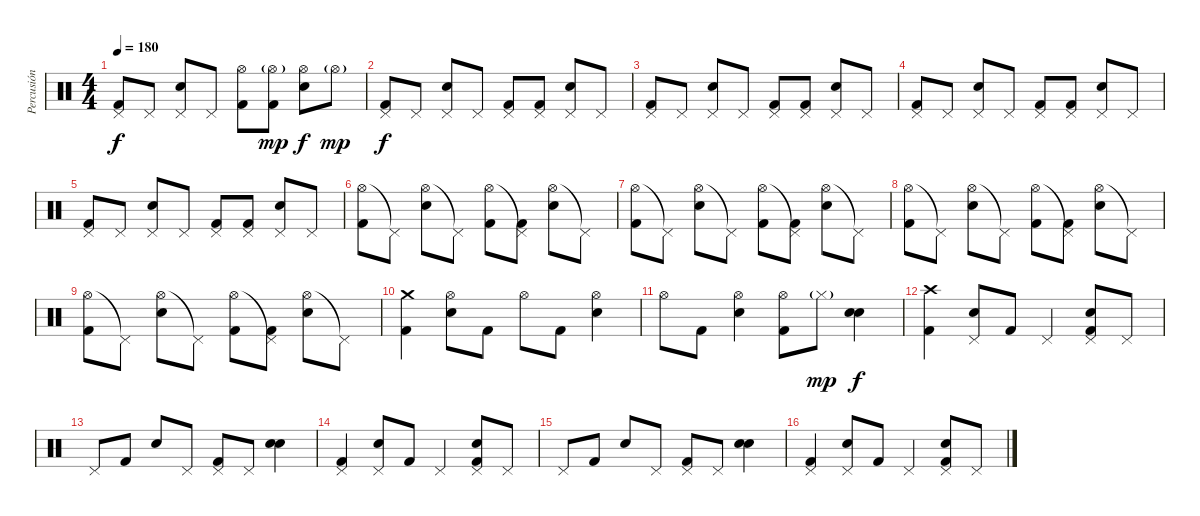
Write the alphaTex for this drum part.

\track ("Percusión" "Percusión") {instrument percussion}
\staff {score}
\articulation defaults
\ts (4 4)
\tempo 180
\clef neutral
\ks c
("Pedal Hi-Hat (hit)" "Kick (hit) 2").8{dy f} "Pedal Hi-Hat (hit)".8 ("Pedal Hi-Hat (hit)" "Electric Snare (hit)").8 "Pedal Hi-Hat (hit)".8 ("Hi-Hat (open)" "Kick (hit) 2").8 ("Hi-Hat (open)"{g} "Kick (hit) 2").8{dy mp} ("Hi-Hat (open)" "Electric Snare (hit)").8{dy f} "Hi-Hat (open)"{g}.8{dy mp} |
("Pedal Hi-Hat (hit)" "Kick (hit) 2").8{dy f} "Pedal Hi-Hat (hit)".8 ("Pedal Hi-Hat (hit)" "Electric Snare (hit)").8 "Pedal Hi-Hat (hit)".8 ("Pedal Hi-Hat (hit)" "Kick (hit) 2").8 ("Pedal Hi-Hat (hit)" "Kick (hit) 2").8 ("Pedal Hi-Hat (hit)" "Electric Snare (hit)").8 "Pedal Hi-Hat (hit)".8 |
("Pedal Hi-Hat (hit)" "Kick (hit) 2").8 "Pedal Hi-Hat (hit)".8 ("Pedal Hi-Hat (hit)" "Electric Snare (hit)").8 "Pedal Hi-Hat (hit)".8 ("Pedal Hi-Hat (hit)" "Kick (hit) 2").8 ("Pedal Hi-Hat (hit)" "Kick (hit) 2").8 ("Pedal Hi-Hat (hit)" "Electric Snare (hit)").8 "Pedal Hi-Hat (hit)".8 |
("Pedal Hi-Hat (hit)" "Kick (hit) 2").8 "Pedal Hi-Hat (hit)".8 ("Pedal Hi-Hat (hit)" "Electric Snare (hit)").8 "Pedal Hi-Hat (hit)".8 ("Pedal Hi-Hat (hit)" "Kick (hit) 2").8 ("Pedal Hi-Hat (hit)" "Kick (hit) 2").8 ("Pedal Hi-Hat (hit)" "Electric Snare (hit)").8 "Pedal Hi-Hat (hit)".8 |
("Pedal Hi-Hat (hit)" "Kick (hit) 2").8 "Pedal Hi-Hat (hit)".8 ("Pedal Hi-Hat (hit)" "Electric Snare (hit)").8 "Pedal Hi-Hat (hit)".8 ("Pedal Hi-Hat (hit)" "Kick (hit) 2").8 ("Pedal Hi-Hat (hit)" "Kick (hit) 2").8 ("Pedal Hi-Hat (hit)" "Electric Snare (hit)").8 "Pedal Hi-Hat (hit)".8 |
("Hi-Hat (open)" "Kick (hit) 2").8 "Pedal Hi-Hat (hit)"{t}.8 ("Hi-Hat (open)" "Electric Snare (hit)").8 "Pedal Hi-Hat (hit)"{t}.8 ("Hi-Hat (open)" "Kick (hit) 2").8 ("Pedal Hi-Hat (hit)"{t} "Kick (hit) 2").8 ("Hi-Hat (open)" "Electric Snare (hit)").8 "Pedal Hi-Hat (hit)"{t}.8 |
("Hi-Hat (open)" "Kick (hit) 2").8 "Pedal Hi-Hat (hit)"{t}.8 ("Hi-Hat (open)" "Electric Snare (hit)").8 "Pedal Hi-Hat (hit)"{t}.8 ("Hi-Hat (open)" "Kick (hit) 2").8 ("Pedal Hi-Hat (hit)"{t} "Kick (hit) 2").8 ("Hi-Hat (open)" "Electric Snare (hit)").8 "Pedal Hi-Hat (hit)"{t}.8 |
("Hi-Hat (open)" "Kick (hit) 2").8 "Pedal Hi-Hat (hit)"{t}.8 ("Hi-Hat (open)" "Electric Snare (hit)").8 "Pedal Hi-Hat (hit)"{t}.8 ("Hi-Hat (open)" "Kick (hit) 2").8 ("Pedal Hi-Hat (hit)"{t} "Kick (hit) 2").8 ("Hi-Hat (open)" "Electric Snare (hit)").8 "Pedal Hi-Hat (hit)"{t}.8 |
("Hi-Hat (open)" "Kick (hit) 2").8 "Pedal Hi-Hat (hit)"{t}.8 ("Hi-Hat (open)" "Electric Snare (hit)").8 "Pedal Hi-Hat (hit)"{t}.8 ("Hi-Hat (open)" "Kick (hit) 2").8 ("Pedal Hi-Hat (hit)"{t} "Kick (hit) 2").8 ("Hi-Hat (open)" "Electric Snare (hit)").8 "Pedal Hi-Hat (hit)"{t}.8 |
("Crash medium (hit)" "Kick (hit) 2").4 ("Hi-Hat (open)" "Electric Snare (hit)").8 "Kick (hit) 2".8 "Hi-Hat (open)".8 "Kick (hit) 2".8 ("Hi-Hat (open)" "Electric Snare (hit)").4 |
"Hi-Hat (open)".8 "Kick (hit) 2".8 ("Hi-Hat (open)" "Electric Snare (hit)").4 ("Hi-Hat (open)" "Kick (hit) 2").8 "Hi-Hat (closed)"{g}.8{dy mp} ("Electric Snare (hit)" "Electric Snare (hit)").4{bd 240 dy f} |
("Crash high (hit)" "Kick (hit) 2").4 ("Pedal Hi-Hat (hit)" "Electric Snare (hit)").8 "Kick (hit) 2".8 "Pedal Hi-Hat (hit)".4 ("Pedal Hi-Hat (hit)" "Electric Snare (hit)" "Kick (hit) 2").8 "Pedal Hi-Hat (hit)".8 |
"Pedal Hi-Hat (hit)".8 "Kick (hit) 2".8 "Electric Snare (hit)".8 "Pedal Hi-Hat (hit)".8 ("Pedal Hi-Hat (hit)" "Kick (hit) 2").8 "Pedal Hi-Hat (hit)".8 ("Electric Snare (hit)" "Electric Snare (hit)").4{bd 240} |
("Pedal Hi-Hat (hit)" "Kick (hit) 2").4 ("Pedal Hi-Hat (hit)" "Electric Snare (hit)").8 "Kick (hit) 2".8 "Pedal Hi-Hat (hit)".4 ("Pedal Hi-Hat (hit)" "Electric Snare (hit)" "Kick (hit) 2").8 "Pedal Hi-Hat (hit)".8 |
"Pedal Hi-Hat (hit)".8 "Kick (hit) 2".8 "Electric Snare (hit)".8 "Pedal Hi-Hat (hit)".8 ("Pedal Hi-Hat (hit)" "Kick (hit) 2").8 "Pedal Hi-Hat (hit)".8 ("Electric Snare (hit)" "Electric Snare (hit)").4{bd 240} |
("Pedal Hi-Hat (hit)" "Kick (hit) 2").4 ("Pedal Hi-Hat (hit)" "Electric Snare (hit)").8 "Kick (hit) 2".8 "Pedal Hi-Hat (hit)".4 ("Pedal Hi-Hat (hit)" "Electric Snare (hit)" "Kick (hit) 2").8 "Pedal Hi-Hat (hit)".8
